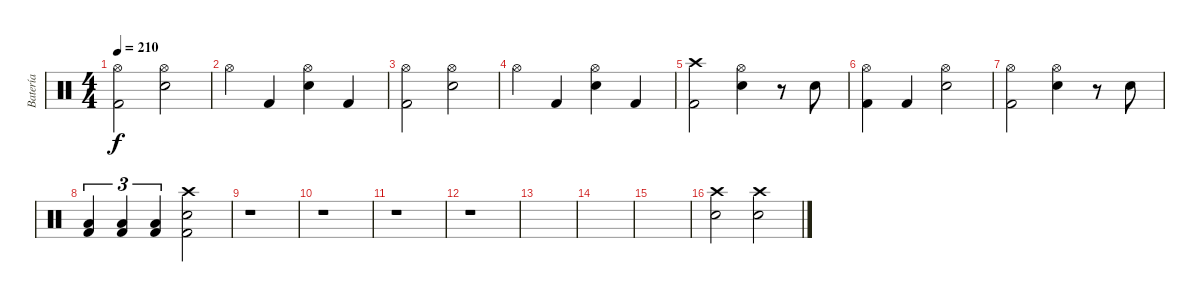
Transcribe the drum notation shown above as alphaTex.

\track ("Batería" "Batería") {instrument percussion}
\staff {score}
\articulation defaults
\ts (4 4)
\tempo 210
\clef neutral
\ks c
("Hi-Hat (open)" "Kick (hit) 2").2{dy f} ("Hi-Hat (open)" "Snare (hit) 2").2 |
"Hi-Hat (open)".4 "Kick (hit) 2".4 ("Hi-Hat (open)" "Snare (hit) 2").4 "Kick (hit) 2".4 |
("Hi-Hat (open)" "Kick (hit) 2").2 ("Hi-Hat (open)" "Snare (hit) 2").2 |
"Hi-Hat (open)".4 "Kick (hit) 2".4 ("Hi-Hat (open)" "Snare (hit) 2").4 "Kick (hit) 2".4 |
("Crash high (hit)" "Kick (hit) 2").2 ("Hi-Hat (open)" "Snare (hit) 2").4 r.8 "Snare (hit) 2".8 |
("Hi-Hat (open)" "Kick (hit) 2").4 "Kick (hit) 2".4 ("Hi-Hat (open)" "Snare (hit) 2").2 |
("Hi-Hat (open)" "Kick (hit) 2").2 ("Hi-Hat (open)" "Snare (hit) 2").4 r.8 "Snare (hit) 2".8 |
("Low Tom (hit)" "Kick (hit) 2").4{tu (3 2)} ("Low Tom (hit)" "Kick (hit) 2").4{tu (3 2)} ("Low Tom (hit)" "Kick (hit) 2").4{tu (3 2)} ("Crash high (hit)" "Snare (hit) 2" "Kick (hit) 2").2 |
r.1 |
r.1 |
r.1 |
r.1 |
|
|
|
("Crash high (hit)" "Snare (hit) 2").2 ("Crash high (hit)" "Snare (hit) 2").2
